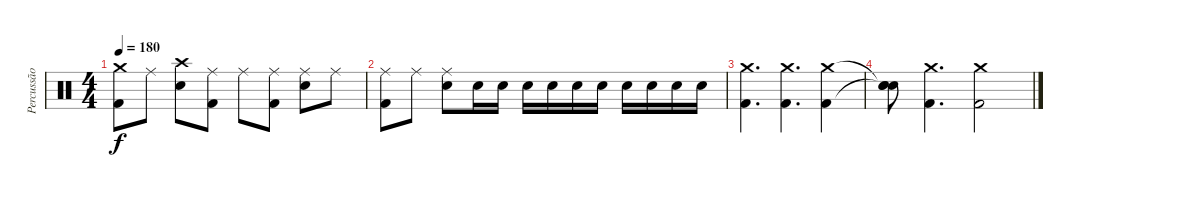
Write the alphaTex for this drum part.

\track ("Percussão" "Percussão") {instrument percussion}
\staff {score}
\articulation defaults
\ts (4 4)
\tempo 180
\clef neutral
\ks c
("Crash medium (hit)" "Kick (hit) 2").8{dy f} "Ride (middle)".8 ("Crash high (hit)" "Electric Snare (hit)").8 ("Ride (middle)" "Kick (hit) 2").8 "Ride (middle)".8 ("Ride (middle)" "Kick (hit) 2").8 ("Ride (middle)" "Electric Snare (hit)").8 "Ride (middle)".8 |
("Ride (middle)" "Kick (hit) 2").8 "Ride (middle)".8 ("Ride (middle)" "Electric Snare (hit)").8 "Electric Snare (hit)".16 "Electric Snare (hit)".16 "Electric Snare (hit)".16 "Electric Snare (hit)".16 "Electric Snare (hit)".16 "Electric Snare (hit)".16 "Electric Snare (hit)".16 "Electric Snare (hit)".16 "Electric Snare (hit)".16 "Electric Snare (hit)".16 |
("Crash medium (hit)" "Kick (hit) 2").4{d} ("Crash medium (hit)" "Kick (hit) 2").4{d} ("Crash medium (hit)" "Kick (hit) 2").4 |
("Snare (hit)"{t} "Snare (hit)"{t} "Snare (hit)").8 ("Crash medium (hit)" "Kick (hit) 2").4{d} ("Crash medium (hit)" "Kick (hit) 2").2
